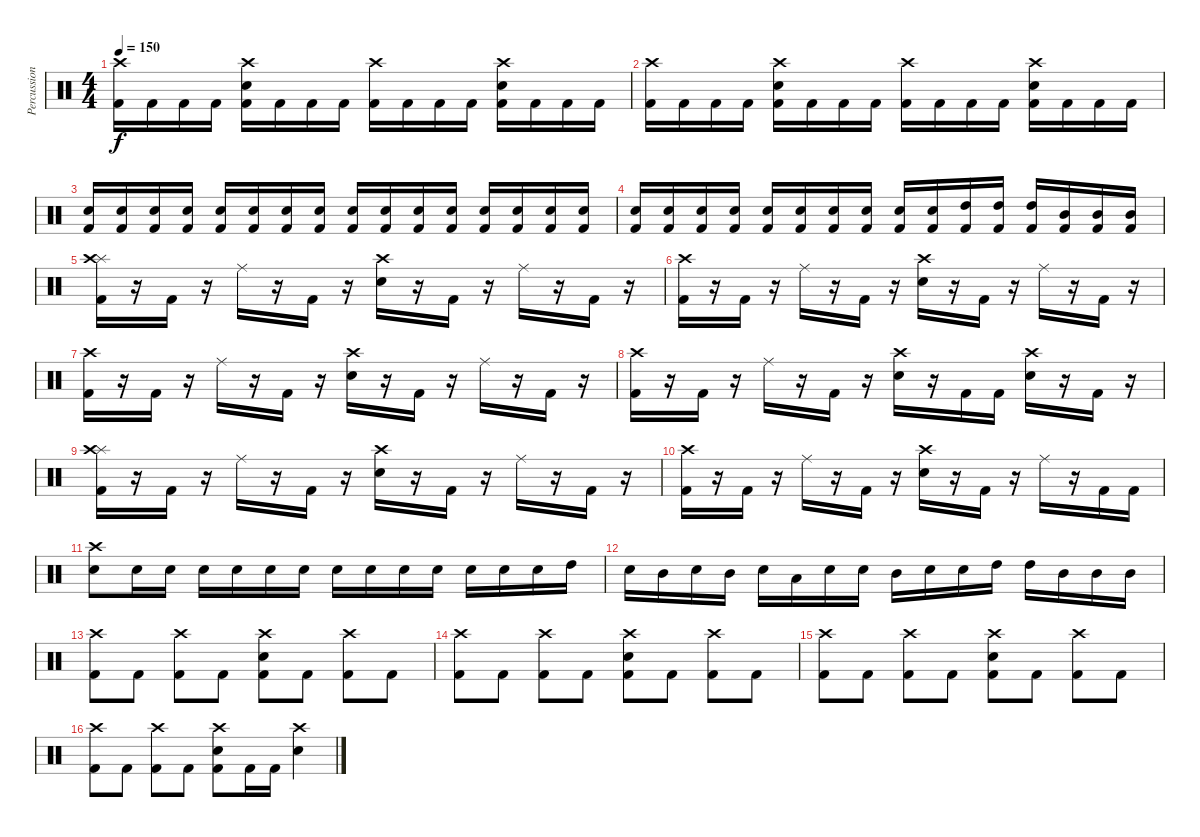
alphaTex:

\track ("Percussion" "Percussion") {instrument percussion}
\staff {score}
\articulation defaults
\ts (4 4)
\tempo 150
\clef neutral
\ks c
("Crash high (hit)" "Kick (hit) 2").16{dy f} "Kick (hit) 2".16 "Kick (hit) 2".16 "Kick (hit) 2".16 ("Crash high (hit)" "Snare (hit) 2" "Kick (hit) 2").16 "Kick (hit) 2".16 "Kick (hit) 2".16 "Kick (hit) 2".16 ("Crash high (hit)" "Kick (hit) 2").16 "Kick (hit) 2".16 "Kick (hit) 2".16 "Kick (hit) 2".16 ("Crash high (hit)" "Snare (hit) 2" "Kick (hit) 2").16 "Kick (hit) 2".16 "Kick (hit) 2".16 "Kick (hit) 2".16 |
("Crash high (hit)" "Kick (hit) 2").16 "Kick (hit) 2".16 "Kick (hit) 2".16 "Kick (hit) 2".16 ("Crash high (hit)" "Snare (hit) 2" "Kick (hit) 2").16 "Kick (hit) 2".16 "Kick (hit) 2".16 "Kick (hit) 2".16 ("Crash high (hit)" "Kick (hit) 2").16 "Kick (hit) 2".16 "Kick (hit) 2".16 "Kick (hit) 2".16 ("Crash high (hit)" "Snare (hit) 2" "Kick (hit) 2").16 "Kick (hit) 2".16 "Kick (hit) 2".16 "Kick (hit) 2".16 |
("Snare (hit) 2" "Kick (hit) 2").16 ("Snare (hit) 2" "Kick (hit) 2").16 ("Snare (hit) 2" "Kick (hit) 2").16 ("Snare (hit) 2" "Kick (hit) 2").16 ("Snare (hit) 2" "Kick (hit) 2").16 ("Snare (hit) 2" "Kick (hit) 2").16 ("Snare (hit) 2" "Kick (hit) 2").16 ("Snare (hit) 2" "Kick (hit) 2").16 ("Snare (hit) 2" "Kick (hit) 2").16 ("Snare (hit) 2" "Kick (hit) 2").16 ("Snare (hit) 2" "Kick (hit) 2").16 ("Snare (hit) 2" "Kick (hit) 2").16 ("Snare (hit) 2" "Kick (hit) 2").16 ("Snare (hit) 2" "Kick (hit) 2").16 ("Snare (hit) 2" "Kick (hit) 2").16 ("Snare (hit) 2" "Kick (hit) 2").16 |
("Snare (hit) 2" "Kick (hit) 2").16 ("Snare (hit) 2" "Kick (hit) 2").16 ("Snare (hit) 2" "Kick (hit) 2").16 ("Snare (hit) 2" "Kick (hit) 2").16 ("Snare (hit) 2" "Kick (hit) 2").16 ("Snare (hit) 2" "Kick (hit) 2").16 ("Snare (hit) 2" "Kick (hit) 2").16 ("Snare (hit) 2" "Kick (hit) 2").16 ("Snare (hit) 2" "Kick (hit) 2").16 ("Snare (hit) 2" "Kick (hit) 2").16 ("High Tom (hit)" "Kick (hit) 2").16 ("High Tom (hit)" "Kick (hit) 2").16 ("High Tom (hit)" "Kick (hit) 2").16 ("Mid Tom (hit)" "Kick (hit) 2").16 ("Mid Tom (hit)" "Kick (hit) 2").16 ("Mid Tom (hit)" "Kick (hit) 2").16 |
("Splash (hit)" "Crash high (hit)" "Kick (hit) 2").16 r.16 "Kick (hit) 2".16 r.16 "Ride (middle)".16 r.16 "Kick (hit) 2".16 r.16 ("Crash high (hit)" "Snare (hit) 2").16 r.16 "Kick (hit) 2".16 r.16 "Ride (middle)".16 r.16 "Kick (hit) 2".16 r.16 |
("Crash high (hit)" "Kick (hit) 2").16 r.16 "Kick (hit) 2".16 r.16 "Ride (middle)".16 r.16 "Kick (hit) 2".16 r.16 ("Crash high (hit)" "Snare (hit) 2").16 r.16 "Kick (hit) 2".16 r.16 "Ride (middle)".16 r.16 "Kick (hit) 2".16 r.16 |
("Crash high (hit)" "Kick (hit) 2").16 r.16 "Kick (hit) 2".16 r.16 "Ride (middle)".16 r.16 "Kick (hit) 2".16 r.16 ("Crash high (hit)" "Snare (hit) 2").16 r.16 "Kick (hit) 2".16 r.16 "Ride (middle)".16 r.16 "Kick (hit) 2".16 r.16 |
("Crash high (hit)" "Kick (hit) 2").16 r.16 "Kick (hit) 2".16 r.16 "Ride (middle)".16 r.16 "Kick (hit) 2".16 r.16 ("Crash high (hit)" "Snare (hit) 2").16 r.16 "Kick (hit) 2".16 "Kick (hit) 2".16 ("Crash high (hit)" "Snare (hit) 2").16 r.16 "Kick (hit) 2".16 r.16 |
("Splash (hit)" "Crash high (hit)" "Kick (hit) 2").16 r.16 "Kick (hit) 2".16 r.16 "Ride (middle)".16 r.16 "Kick (hit) 2".16 r.16 ("Crash high (hit)" "Snare (hit) 2").16 r.16 "Kick (hit) 2".16 r.16 "Ride (middle)".16 r.16 "Kick (hit) 2".16 r.16 |
("Crash high (hit)" "Kick (hit) 2").16 r.16 "Kick (hit) 2".16 r.16 "Ride (middle)".16 r.16 "Kick (hit) 2".16 r.16 ("Crash high (hit)" "Snare (hit) 2").16 r.16 "Kick (hit) 2".16 r.16 "Ride (middle)".16 r.16 "Kick (hit) 2".16 "Kick (hit) 2".16 |
("Crash high (hit)" "Snare (hit) 2").8 "Snare (hit) 2".16 "Snare (hit) 2".16 "Snare (hit) 2".16 "Snare (hit) 2".16 "Snare (hit) 2".16 "Snare (hit) 2".16 "Snare (hit) 2".16 "Snare (hit) 2".16 "Snare (hit) 2".16 "Snare (hit) 2".16 "Snare (hit) 2".16 "Snare (hit) 2".16 "Snare (hit) 2".16 "High Tom (hit)".16 |
"Snare (hit) 2".16 "Mid Tom (hit)".16 "Snare (hit) 2".16 "Mid Tom (hit)".16 "Snare (hit) 2".16 "Low Tom (hit)".16 "Snare (hit) 2".16 "Snare (hit) 2".16 "Mid Tom (hit)".16 "Snare (hit) 2".16 "Snare (hit) 2".16 "High Tom (hit)".16 "High Tom (hit)".16 "Mid Tom (hit)".16 "Mid Tom (hit)".16 "Mid Tom (hit)".16 |
("Crash high (hit)" "Kick (hit) 2").8 "Kick (hit) 2".8 ("Crash high (hit)" "Kick (hit) 2").8 "Kick (hit) 2".8 ("Crash high (hit)" "Snare (hit) 2" "Kick (hit) 2").8 "Kick (hit) 2".8 ("Crash high (hit)" "Kick (hit) 2").8 "Kick (hit) 2".8 |
("Crash high (hit)" "Kick (hit) 2").8 "Kick (hit) 2".8 ("Crash high (hit)" "Kick (hit) 2").8 "Kick (hit) 2".8 ("Crash high (hit)" "Snare (hit) 2" "Kick (hit) 2").8 "Kick (hit) 2".8 ("Crash high (hit)" "Kick (hit) 2").8 "Kick (hit) 2".8 |
("Crash high (hit)" "Kick (hit) 2").8 "Kick (hit) 2".8 ("Crash high (hit)" "Kick (hit) 2").8 "Kick (hit) 2".8 ("Crash high (hit)" "Snare (hit) 2" "Kick (hit) 2").8 "Kick (hit) 2".8 ("Crash high (hit)" "Kick (hit) 2").8 "Kick (hit) 2".8 |
("Crash high (hit)" "Kick (hit) 2").8 "Kick (hit) 2".8 ("Crash high (hit)" "Kick (hit) 2").8 "Kick (hit) 2".8 ("Crash high (hit)" "Snare (hit) 2" "Kick (hit) 2").8 "Kick (hit) 2".16 "Kick (hit) 2".16 ("Crash high (hit)" "Snare (hit) 2").4
